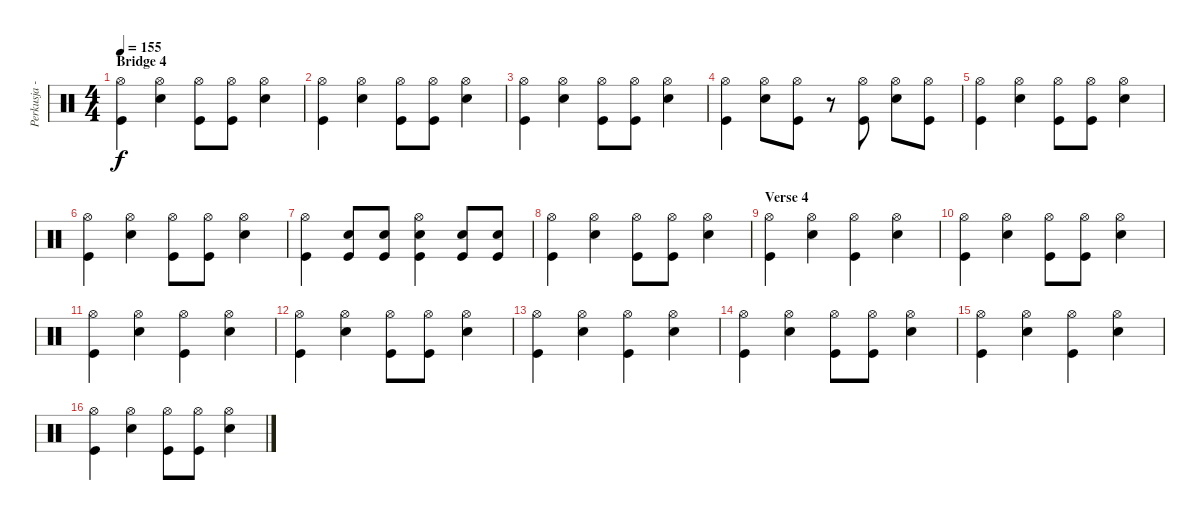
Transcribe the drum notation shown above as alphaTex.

\track ("Perkusja - Mielony" "Perkusja -") {instrument percussion}
\staff {score}
\articulation defaults
\ts (4 4)
\section ("" "Bridge 4")
\tempo 155
\clef neutral
\ks c
("Hi-Hat (open)" "Kick (hit)").4{dy f} ("Snare (hit) 2" "Hi-Hat (open)").4 ("Hi-Hat (open)" "Kick (hit)").8 ("Hi-Hat (open)" "Kick (hit)").8 ("Snare (hit) 2" "Hi-Hat (open)").4 |
("Hi-Hat (open)" "Kick (hit)").4 ("Snare (hit) 2" "Hi-Hat (open)").4 ("Hi-Hat (open)" "Kick (hit)").8 ("Hi-Hat (open)" "Kick (hit)").8 ("Snare (hit) 2" "Hi-Hat (open)").4 |
("Hi-Hat (open)" "Kick (hit)").4 ("Snare (hit) 2" "Hi-Hat (open)").4 ("Hi-Hat (open)" "Kick (hit)").8 ("Hi-Hat (open)" "Kick (hit)").8 ("Snare (hit) 2" "Hi-Hat (open)").4 |
("Hi-Hat (open)" "Kick (hit)").4 ("Snare (hit) 2" "Hi-Hat (open)").8 ("Hi-Hat (open)" "Kick (hit)").8 r.8 ("Hi-Hat (open)" "Kick (hit)").8 ("Snare (hit) 2" "Hi-Hat (open)").8 ("Hi-Hat (open)" "Kick (hit)").8 |
("Hi-Hat (open)" "Kick (hit)").4 ("Snare (hit) 2" "Hi-Hat (open)").4 ("Hi-Hat (open)" "Kick (hit)").8 ("Hi-Hat (open)" "Kick (hit)").8 ("Snare (hit) 2" "Hi-Hat (open)").4 |
("Hi-Hat (open)" "Kick (hit)").4 ("Snare (hit) 2" "Hi-Hat (open)").4 ("Hi-Hat (open)" "Kick (hit)").8 ("Hi-Hat (open)" "Kick (hit)").8 ("Snare (hit) 2" "Hi-Hat (open)").4 |
("Hi-Hat (open)" "Kick (hit)").4 ("Snare (hit) 2" "Kick (hit)").8 ("Snare (hit) 2" "Kick (hit)").8 ("Snare (hit) 2" "Hi-Hat (open)" "Kick (hit)").4 ("Snare (hit) 2" "Kick (hit)").8 ("Snare (hit) 2" "Kick (hit)").8 |
("Hi-Hat (open)" "Kick (hit)").4 ("Snare (hit) 2" "Hi-Hat (open)").4 ("Hi-Hat (open)" "Kick (hit)").8 ("Hi-Hat (open)" "Kick (hit)").8 ("Snare (hit) 2" "Hi-Hat (open)").4 |
\section ("" "Verse 4")
("Hi-Hat (open)" "Kick (hit)").4 ("Snare (hit) 2" "Hi-Hat (open)").4 ("Hi-Hat (open)" "Kick (hit)").4 ("Snare (hit) 2" "Hi-Hat (open)").4 |
("Hi-Hat (open)" "Kick (hit)").4 ("Snare (hit) 2" "Hi-Hat (open)").4 ("Hi-Hat (open)" "Kick (hit)").8 ("Hi-Hat (open)" "Kick (hit)").8 ("Snare (hit) 2" "Hi-Hat (open)").4 |
("Hi-Hat (open)" "Kick (hit)").4 ("Snare (hit) 2" "Hi-Hat (open)").4 ("Hi-Hat (open)" "Kick (hit)").4 ("Snare (hit) 2" "Hi-Hat (open)").4 |
("Hi-Hat (open)" "Kick (hit)").4 ("Snare (hit) 2" "Hi-Hat (open)").4 ("Hi-Hat (open)" "Kick (hit)").8 ("Hi-Hat (open)" "Kick (hit)").8 ("Snare (hit) 2" "Hi-Hat (open)").4 |
("Hi-Hat (open)" "Kick (hit)").4 ("Snare (hit) 2" "Hi-Hat (open)").4 ("Hi-Hat (open)" "Kick (hit)").4 ("Snare (hit) 2" "Hi-Hat (open)").4 |
("Hi-Hat (open)" "Kick (hit)").4 ("Snare (hit) 2" "Hi-Hat (open)").4 ("Hi-Hat (open)" "Kick (hit)").8 ("Hi-Hat (open)" "Kick (hit)").8 ("Snare (hit) 2" "Hi-Hat (open)").4 |
("Hi-Hat (open)" "Kick (hit)").4 ("Snare (hit) 2" "Hi-Hat (open)").4 ("Hi-Hat (open)" "Kick (hit)").4 ("Snare (hit) 2" "Hi-Hat (open)").4 |
("Hi-Hat (open)" "Kick (hit)").4 ("Snare (hit) 2" "Hi-Hat (open)").4 ("Hi-Hat (open)" "Kick (hit)").8 ("Hi-Hat (open)" "Kick (hit)").8 ("Snare (hit) 2" "Hi-Hat (open)").4
